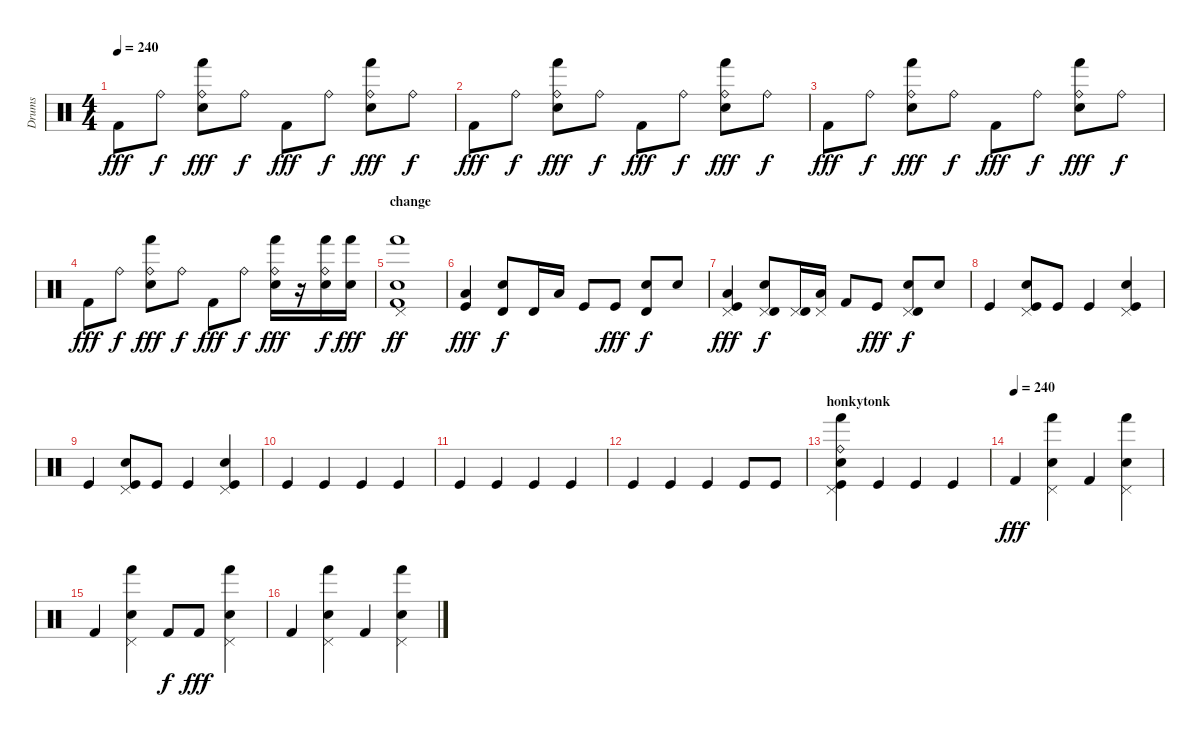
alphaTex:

\track ("Drums" "Drums") {instrument percussion}
\staff {score}
\articulation defaults
\ts (4 4)
\tempo 240
\clef neutral
\ks c "Kick (hit) 2".8{dy fff} "Ride (bell)".8{dy f}
("Ride (bell)" "Hand (hit)" "Electric Snare (hit)").8{dy fff} "Ride (bell)".8{dy f} "Kick (hit) 2".8{dy fff} "Ride (bell)".8{dy f} ("Ride (bell)" "Hand (hit)" "Electric Snare (hit)").8{dy fff} "Ride (bell)".8{dy f} |
"Kick (hit) 2".8{dy fff} "Ride (bell)".8{dy f} ("Ride (bell)" "Hand (hit)" "Electric Snare (hit)").8{dy fff} "Ride (bell)".8{dy f} "Kick (hit) 2".8{dy fff} "Ride (bell)".8{dy f} ("Ride (bell)" "Hand (hit)" "Electric Snare (hit)").8{dy fff} "Ride (bell)".8{dy f} |
"Kick (hit) 2".8{dy fff} "Ride (bell)".8{dy f} ("Ride (bell)" "Hand (hit)" "Electric Snare (hit)").8{dy fff} "Ride (bell)".8{dy f} "Kick (hit) 2".8{dy fff} "Ride (bell)".8{dy f} ("Ride (bell)" "Hand (hit)" "Electric Snare (hit)").8{dy fff} "Ride (bell)".8{dy f} |
"Kick (hit) 2".8{dy fff} "Ride (bell)".8{dy f} ("Ride (bell)" "Hand (hit)" "Electric Snare (hit)").8{dy fff} "Ride (bell)".8{dy f} "Kick (hit) 2".8{dy fff} "Ride (bell)".8{dy f} ("Ride (bell)" "Hand (hit)" "Electric Snare (hit)").16{dy fff} r.16 ("Ride (bell)" "Hand (hit)" "Electric Snare (hit)").16{dy f} ("Hand (hit)" "Electric Snare (hit)").16{dy fff} |
\section ("" "change")
("Pedal Hi-Hat (hit)" "Hand (hit)" "Electric Snare (hit)" "Kick (hit) 2").1{dy ff} |
("Low Tom (hit)" "Kick (hit)").4{dy fff} ("Timbale high (hit)" "Electric Snare (hit)").8{dy f} "Timbale high (hit)".16 "Low Tom (hit)".16 "Kick (hit)".8 "Kick (hit)".8{dy fff} ("Timbale high (hit)" "Electric Snare (hit)").8{dy f} "Electric Snare (hit)".8 |
("Pedal Hi-Hat (hit)" "Low Tom (hit)" "Kick (hit)").4{dy fff} ("Pedal Hi-Hat (hit)" "Timbale high (hit)" "Electric Snare (hit)").8{dy f} ("Pedal Hi-Hat (hit)" "Timbale high (hit)").16 ("Pedal Hi-Hat (hit)" "Low Tom (hit)").16 "Kick (hit) 2".8 "Kick (hit)".8{dy fff} ("Pedal Hi-Hat (hit)" "Timbale high (hit)" "Electric Snare (hit)").8{dy f} "Electric Snare (hit)".8 |
"Kick (hit)".4 ("Pedal Hi-Hat (hit)" "Electric Snare (hit)" "Kick (hit)").8 "Kick (hit)".8 "Kick (hit)".4 ("Pedal Hi-Hat (hit)" "Electric Snare (hit)" "Kick (hit)").4 |
"Kick (hit)".4 ("Pedal Hi-Hat (hit)" "Electric Snare (hit)" "Kick (hit)").8 "Kick (hit)".8 "Kick (hit)".4 ("Pedal Hi-Hat (hit)" "Electric Snare (hit)" "Kick (hit)").4 |
"Kick (hit)".4 "Kick (hit)".4 "Kick (hit)".4 "Kick (hit)".4 |
"Kick (hit)".4 "Kick (hit)".4 "Kick (hit)".4 "Kick (hit)".4 |
"Kick (hit)".4 "Kick (hit)".4 "Kick (hit)".4 "Kick (hit)".8 "Kick (hit)".8 |
\section ("" "honkytonk")
("Pedal Hi-Hat (hit)" "Ride (bell)" "Hand (hit)" "Electric Snare (hit)" "Kick (hit)").4 "Kick (hit)".4 "Kick (hit)".4 "Kick (hit)".4 |
\tempo (240)
"Kick (hit) 2".4{dy fff} ("Pedal Hi-Hat (hit)" "Hand (hit)" "Electric Snare (hit)").4 "Kick (hit) 2".4 ("Pedal Hi-Hat (hit)" "Hand (hit)" "Electric Snare (hit)").4 |
"Kick (hit) 2".4 ("Pedal Hi-Hat (hit)" "Hand (hit)" "Electric Snare (hit)").4 "Kick (hit) 2".8{dy f} "Kick (hit) 2".8{dy fff} ("Pedal Hi-Hat (hit)" "Hand (hit)" "Electric Snare (hit)").4 |
"Kick (hit) 2".4 ("Pedal Hi-Hat (hit)" "Hand (hit)" "Electric Snare (hit)").4 "Kick (hit) 2".4 ("Pedal Hi-Hat (hit)" "Hand (hit)" "Electric Snare (hit)").4
